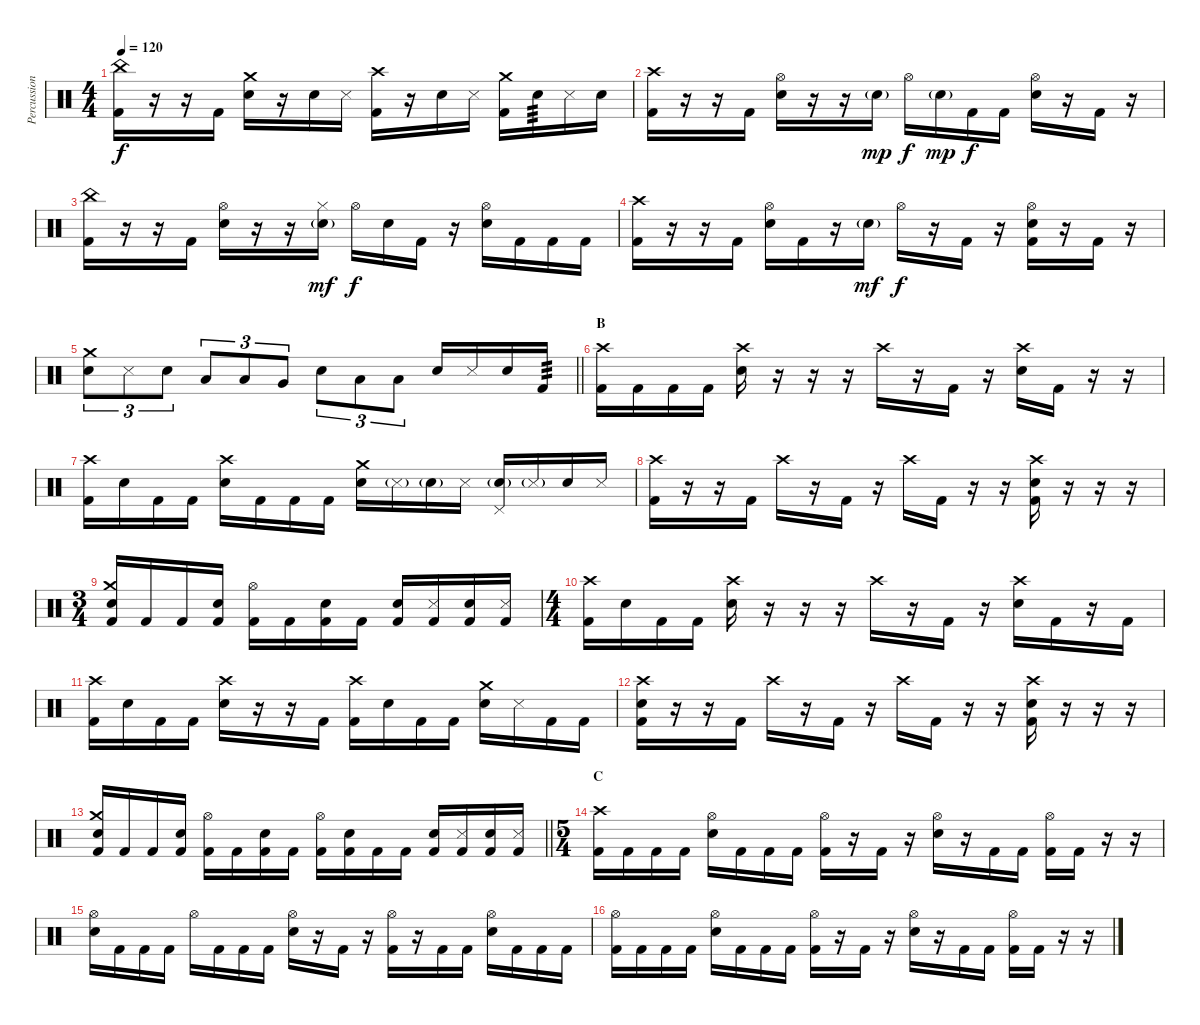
\track ("Percussion" "Percussion") {instrument percussion}
\staff {score}
\articulation defaults
\ts (4 4)
\tempo 120
\clef neutral
\ks c
("China (hit)" "Kick (hit) 2").16{dy f} r.16 r.16 "Kick (hit) 2".16 ("Crash medium (hit)" "Snare (hit) 2").16 r.16 "Snare (hit) 2".16 "Metronome (hit)".16 ("Crash high (hit)" "Kick (hit) 2").16 r.16 "Snare (hit) 2".16 "Metronome (hit)".16 ("Crash medium (hit)" "Kick (hit) 2").16 "Snare (hit) 2".16{tp 3} "Metronome (hit)".16 "Snare (hit) 2".16 |
("Crash high (hit)" "Kick (hit) 2").16 r.16 r.16 "Kick (hit) 2".16 ("Hi-Hat (open)" "Snare (hit) 2").16 r.16 r.16 "Snare (hit) 2"{g}.16{dy mp} "Hi-Hat (open)".16{dy f} "Snare (hit) 2"{g}.16{dy mp} "Kick (hit) 2".16{dy f} "Kick (hit) 2".16 ("Hi-Hat (open)" "Snare (hit) 2").16 r.16 "Kick (hit) 2".16 r.16 |
("China (hit)" "Kick (hit) 2").16 r.16 r.16 "Kick (hit) 2".16 ("Hi-Hat (open)" "Snare (hit) 2").16 r.16 r.16 ("Hi-Hat (closed)" "Snare (hit) 2"{g}).16{dy mf} "Hi-Hat (open)".16{dy f} "Snare (hit) 2".16 "Kick (hit) 2".16 r.16 ("Hi-Hat (open)" "Snare (hit) 2").16 "Kick (hit) 2".16 "Kick (hit) 2".16 "Kick (hit) 2".16 |
("Crash high (hit)" "Kick (hit) 2").16 r.16 r.16 "Kick (hit) 2".16 ("Hi-Hat (open)" "Snare (hit) 2").16 "Kick (hit) 2".16 r.16 "Snare (hit) 2"{g}.16{dy mf} "Hi-Hat (open)".16{dy f} r.16 "Kick (hit) 2".16 r.16 ("Hi-Hat (open)" "Snare (hit) 2" "Kick (hit) 2").16 r.16 "Kick (hit) 2".16 r.16 |
\barLineRight lightlight
("Crash medium (hit)" "Snare (hit) 2").8{tu (3 2)} "Metronome (hit)".8{tu (3 2)} "Snare (hit) 2".8{tu (3 2)} "Low Tom (hit)".8{tu (3 2)} "Low Tom (hit)".8{tu (3 2)} "Very Low Tom (hit)".8{tu (3 2)} "Snare (hit) 2".8{tu (3 2)} "Low Tom (hit)".8{tu (3 2)} "Low Tom (hit)".8{tu (3 2)} "Snare (hit) 2".16 "Metronome (hit)".16 "Snare (hit) 2".16 "Kick (hit) 2".16{tp 3} |
\section ("" "B")
("Crash high (hit)" "Kick (hit) 2").16 "Kick (hit) 2".16 "Kick (hit) 2".16 "Kick (hit) 2".16 ("Crash high (hit)" "Snare (hit) 2").16 r.16 r.16 r.16 "Crash high (hit)".16 r.16 "Kick (hit) 2".16 r.16 ("Crash high (hit)" "Snare (hit) 2").16 "Kick (hit) 2".16 r.16 r.16 |
("Crash high (hit)" "Kick (hit) 2").16 "Snare (hit) 2".16 "Kick (hit) 2".16 "Kick (hit) 2".16 ("Crash high (hit)" "Snare (hit) 2").16 "Kick (hit) 2".16 "Kick (hit) 2".16 "Kick (hit) 2".16 ("Crash medium (hit)" "Snare (hit) 2").16 "Metronome (hit)"{g}.16 "Snare (hit) 2"{g}.16 "Metronome (hit)".16 ("Pedal Hi-Hat (hit)" "Snare (hit) 2"{g}).16 "Metronome (hit)"{g}.16 "Snare (hit) 2".16 "Metronome (hit)".16 |
("Crash high (hit)" "Kick (hit) 2").16 r.16 r.16 "Kick (hit) 2".16 "Crash high (hit)".16 r.16 "Kick (hit) 2".16 r.16 "Crash high (hit)".16 "Kick (hit) 2".16 r.16 r.16 ("Crash high (hit)" "Snare (hit) 2" "Kick (hit) 2").16 r.16 r.16 r.16 |
\ts (3 4)
("Crash medium (hit)" "Snare (hit) 2" "Kick (hit) 2").16 "Kick (hit) 2".16 "Kick (hit) 2".16 ("Snare (hit) 2" "Kick (hit) 2").16 ("Hi-Hat (open)" "Kick (hit) 2").16 "Kick (hit) 2".16 ("Snare (hit) 2" "Kick (hit) 2").16 "Kick (hit) 2".16 ("Snare (hit) 2" "Kick (hit) 2").16 ("Metronome (hit)" "Kick (hit) 2").16 ("Snare (hit) 2" "Kick (hit) 2").16 ("Metronome (hit)" "Kick (hit) 2").16 |
\ts (4 4)
("Crash high (hit)" "Kick (hit) 2").16 "Snare (hit) 2".16 "Kick (hit) 2".16 "Kick (hit) 2".16 ("Crash high (hit)" "Snare (hit) 2").16 r.16 r.16 r.16 "Crash high (hit)".16 r.16 "Kick (hit) 2".16 r.16 ("Crash high (hit)" "Snare (hit) 2").16 "Kick (hit) 2".16 r.16 "Kick (hit) 2".16 |
("Crash high (hit)" "Kick (hit) 2").16 "Snare (hit) 2".16 "Kick (hit) 2".16 "Kick (hit) 2".16 ("Crash high (hit)" "Snare (hit) 2").16 r.16 r.16 "Kick (hit) 2".16 ("Crash high (hit)" "Kick (hit) 2").16 "Snare (hit) 2".16 "Kick (hit) 2".16 "Kick (hit) 2".16 ("Crash medium (hit)" "Snare (hit) 2").16 "Metronome (hit)".16 "Kick (hit) 2".16 "Kick (hit) 2".16 |
("Crash high (hit)" "Snare (hit) 2" "Kick (hit) 2").16 r.16 r.16 "Kick (hit) 2".16 "Crash high (hit)".16 r.16 "Kick (hit) 2".16 r.16 "Crash high (hit)".16 "Kick (hit) 2".16 r.16 r.16 ("Crash high (hit)" "Snare (hit) 2" "Kick (hit) 2").16 r.16 r.16 r.16 |
\barLineRight lightlight
("Crash medium (hit)" "Snare (hit) 2" "Kick (hit) 2").16 "Kick (hit) 2".16 "Kick (hit) 2".16 ("Snare (hit) 2" "Kick (hit) 2").16 ("Hi-Hat (open)" "Kick (hit) 2").16 "Kick (hit) 2".16 ("Snare (hit) 2" "Kick (hit) 2").16 "Kick (hit) 2".16 ("Hi-Hat (open)" "Kick (hit) 2").16 ("Snare (hit) 2" "Kick (hit) 2").16 "Kick (hit) 2".16 "Kick (hit) 2".16 ("Snare (hit) 2" "Kick (hit) 2").16 ("Metronome (hit)" "Kick (hit) 2").16 ("Snare (hit) 2" "Kick (hit) 2").16 ("Metronome (hit)" "Kick (hit) 2").16 |
\ts (5 4)
\section ("" "C")
("Crash high (hit)" "Kick (hit) 2").16 "Kick (hit) 2".16 "Kick (hit) 2".16 "Kick (hit) 2".16 ("Hi-Hat (open)" "Snare (hit) 2").16 "Kick (hit) 2".16 "Kick (hit) 2".16 "Kick (hit) 2".16 ("Hi-Hat (open)" "Kick (hit) 2").16 r.16 "Kick (hit) 2".16 r.16 ("Hi-Hat (open)" "Snare (hit) 2").16 r.16 "Kick (hit) 2".16 "Kick (hit) 2".16 ("Hi-Hat (open)" "Kick (hit) 2").16 "Kick (hit) 2".16 r.16 r.16 |
("Hi-Hat (open)" "Snare (hit) 2").16 "Kick (hit) 2".16 "Kick (hit) 2".16 "Kick (hit) 2".16 "Hi-Hat (open)".16 "Kick (hit) 2".16 "Kick (hit) 2".16 "Kick (hit) 2".16 ("Hi-Hat (open)" "Snare (hit) 2").16 r.16 "Kick (hit) 2".16 r.16 ("Hi-Hat (open)" "Kick (hit) 2").16 r.16 "Kick (hit) 2".16 "Kick (hit) 2".16 ("Hi-Hat (open)" "Snare (hit) 2").16 "Kick (hit) 2".16 "Kick (hit) 2".16 "Kick (hit) 2".16 |
("Hi-Hat (open)" "Kick (hit) 2").16 "Kick (hit) 2".16 "Kick (hit) 2".16 "Kick (hit) 2".16 ("Hi-Hat (open)" "Snare (hit) 2").16 "Kick (hit) 2".16 "Kick (hit) 2".16 "Kick (hit) 2".16 ("Hi-Hat (open)" "Kick (hit) 2").16 r.16 "Kick (hit) 2".16 r.16 ("Hi-Hat (open)" "Snare (hit) 2").16 r.16 "Kick (hit) 2".16 "Kick (hit) 2".16 ("Hi-Hat (open)" "Kick (hit) 2").16 "Kick (hit) 2".16 r.16 r.16
